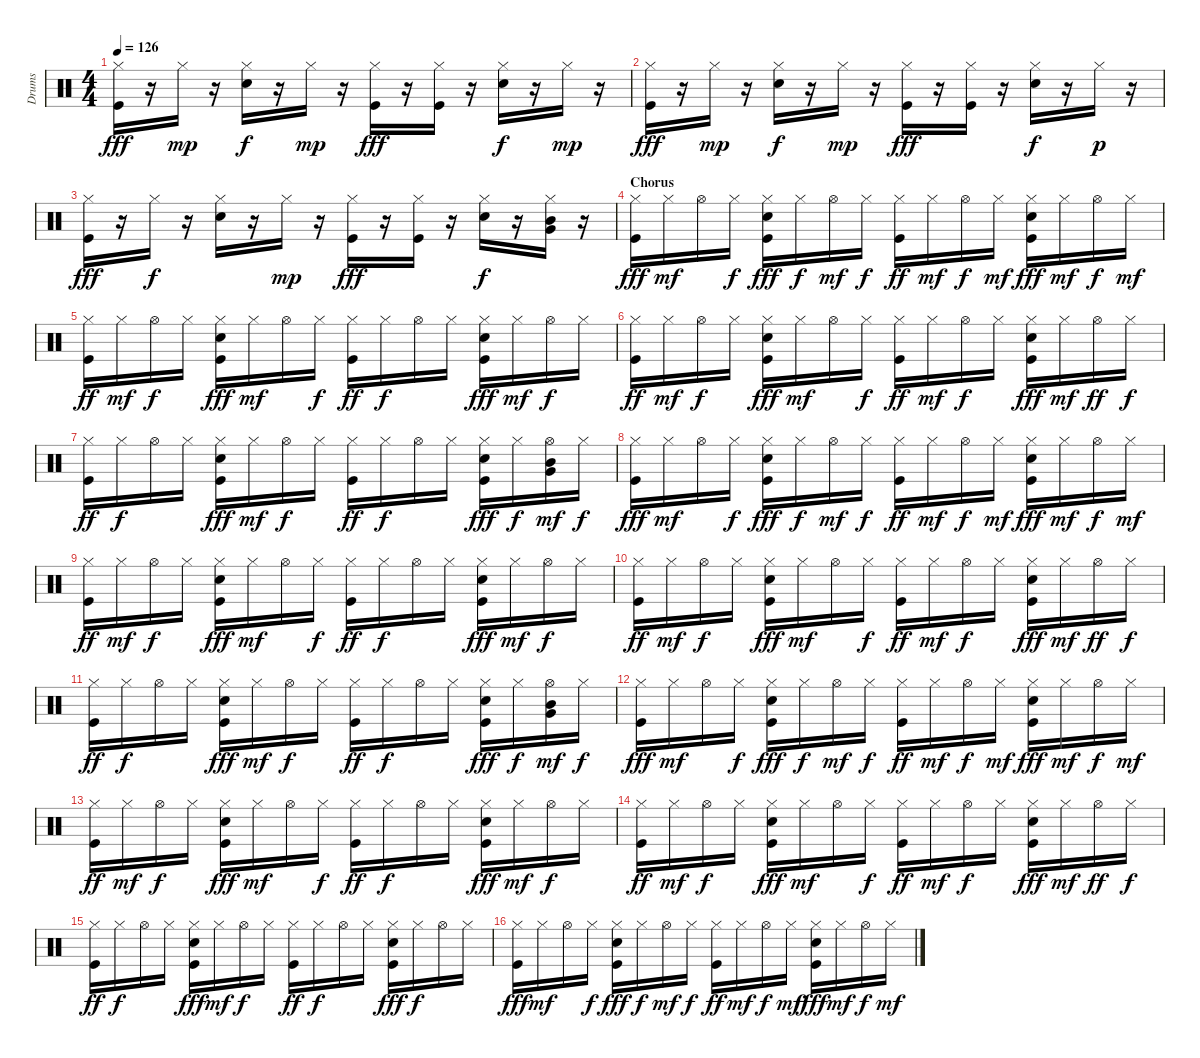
\track ("Drums" "Drums") {instrument percussion}
\staff {score}
\articulation defaults
\ts (4 4)
\tempo 126
\clef neutral
\ks c
("Kick (hit)" "Hi-Hat (closed)").16{dy fff} r.16 "Hi-Hat (closed)".16{dy mp} r.16 ("Electric Snare (hit)" "Hi-Hat (closed)").16{dy f} r.16 "Hi-Hat (closed)".16{dy mp} r.16 ("Kick (hit)" "Hi-Hat (closed)").16{dy fff} r.16 ("Kick (hit)" "Hi-Hat (closed)").16 r.16 ("Electric Snare (hit)" "Hi-Hat (closed)").16{dy f} r.16 "Hi-Hat (closed)".16{dy mp} r.16 |
("Kick (hit)" "Hi-Hat (closed)").16{dy fff} r.16 "Hi-Hat (closed)".16{dy mp} r.16 ("Electric Snare (hit)" "Hi-Hat (closed)").16{dy f} r.16 "Hi-Hat (closed)".16{dy mp} r.16 ("Kick (hit)" "Hi-Hat (closed)").16{dy fff} r.16 ("Kick (hit)" "Hi-Hat (closed)").16 r.16 ("Electric Snare (hit)" "Hi-Hat (closed)").16{dy f} r.16 "Hi-Hat (closed)".16{dy p} r.16 |
("Kick (hit)" "Hi-Hat (closed)").16{dy fff} r.16 "Hi-Hat (closed)".16{dy f} r.16 ("Electric Snare (hit)" "Hi-Hat (closed)").16 r.16 "Hi-Hat (closed)".16{dy mp} r.16 ("Kick (hit)" "Hi-Hat (closed)").16{dy fff} r.16 ("Kick (hit)" "Hi-Hat (closed)").16 r.16 ("Electric Snare (hit)" "Hi-Hat (closed)").16{dy f} r.16 ("Hi-Hat (closed)" "Very Low Tom (hit)" "Mid Tom (hit)").16 r.16 |
\section ("" "Chorus")
("Kick (hit)" "Hi-Hat (closed)").16{dy fff} "Hi-Hat (closed)".16{dy mf} "Hi-Hat (open)".16 "Hi-Hat (closed)".16{dy f} ("Kick (hit)" "Electric Snare (hit)" "Hi-Hat (closed)").16{dy fff} "Hi-Hat (closed)".16{dy f} "Hi-Hat (open)".16{dy mf} "Hi-Hat (closed)".16{dy f} ("Kick (hit)" "Hi-Hat (closed)").16{dy ff} "Hi-Hat (closed)".16{dy mf} "Hi-Hat (open)".16{dy f} "Hi-Hat (closed)".16{dy mf} ("Kick (hit)" "Electric Snare (hit)" "Hi-Hat (closed)").16{dy fff} "Hi-Hat (closed)".16{dy mf} "Hi-Hat (open)".16{dy f} "Hi-Hat (closed)".16{dy mf} |
("Kick (hit)" "Hi-Hat (closed)").16{dy ff} "Hi-Hat (closed)".16{dy mf} "Hi-Hat (open)".16{dy f} "Hi-Hat (closed)".16 ("Kick (hit)" "Electric Snare (hit)" "Hi-Hat (closed)").16{dy fff} "Hi-Hat (closed)".16{dy mf} "Hi-Hat (open)".16 "Hi-Hat (closed)".16{dy f} ("Kick (hit)" "Hi-Hat (closed)").16{dy ff} "Hi-Hat (closed)".16{dy f} "Hi-Hat (open)".16 "Hi-Hat (closed)".16 ("Kick (hit)" "Electric Snare (hit)" "Hi-Hat (closed)").16{dy fff} "Hi-Hat (closed)".16{dy mf} "Hi-Hat (open)".16{dy f} "Hi-Hat (closed)".16 |
("Kick (hit)" "Hi-Hat (closed)").16{dy ff} "Hi-Hat (closed)".16{dy mf} "Hi-Hat (open)".16{dy f} "Hi-Hat (closed)".16 ("Kick (hit)" "Electric Snare (hit)" "Hi-Hat (closed)").16{dy fff} "Hi-Hat (closed)".16{dy mf} "Hi-Hat (open)".16 "Hi-Hat (closed)".16{dy f} ("Kick (hit)" "Hi-Hat (closed)").16{dy ff} "Hi-Hat (closed)".16{dy mf} "Hi-Hat (open)".16{dy f} "Hi-Hat (closed)".16 ("Kick (hit)" "Electric Snare (hit)" "Hi-Hat (closed)").16{dy fff} "Hi-Hat (closed)".16{dy mf} "Hi-Hat (open)".16{dy ff} "Hi-Hat (closed)".16{dy f} |
("Kick (hit)" "Hi-Hat (closed)").16{dy ff} "Hi-Hat (closed)".16{dy f} "Hi-Hat (open)".16 "Hi-Hat (closed)".16 ("Kick (hit)" "Electric Snare (hit)" "Hi-Hat (closed)").16{dy fff} "Hi-Hat (closed)".16{dy mf} "Hi-Hat (open)".16{dy f} "Hi-Hat (closed)".16 ("Kick (hit)" "Hi-Hat (closed)").16{dy ff} "Hi-Hat (closed)".16{dy f} "Hi-Hat (open)".16 "Hi-Hat (closed)".16 ("Kick (hit)" "Electric Snare (hit)" "Hi-Hat (closed)").16{dy fff} "Hi-Hat (closed)".16{dy f} ("Very Low Tom (hit)" "Hi-Hat (open)" "Mid Tom (hit)").16{dy mf} "Hi-Hat (closed)".16{dy f} |
("Kick (hit)" "Hi-Hat (closed)").16{dy fff} "Hi-Hat (closed)".16{dy mf} "Hi-Hat (open)".16 "Hi-Hat (closed)".16{dy f} ("Kick (hit)" "Electric Snare (hit)" "Hi-Hat (closed)").16{dy fff} "Hi-Hat (closed)".16{dy f} "Hi-Hat (open)".16{dy mf} "Hi-Hat (closed)".16{dy f} ("Kick (hit)" "Hi-Hat (closed)").16{dy ff} "Hi-Hat (closed)".16{dy mf} "Hi-Hat (open)".16{dy f} "Hi-Hat (closed)".16{dy mf} ("Kick (hit)" "Electric Snare (hit)" "Hi-Hat (closed)").16{dy fff} "Hi-Hat (closed)".16{dy mf} "Hi-Hat (open)".16{dy f} "Hi-Hat (closed)".16{dy mf} |
("Kick (hit)" "Hi-Hat (closed)").16{dy ff} "Hi-Hat (closed)".16{dy mf} "Hi-Hat (open)".16{dy f} "Hi-Hat (closed)".16 ("Kick (hit)" "Electric Snare (hit)" "Hi-Hat (closed)").16{dy fff} "Hi-Hat (closed)".16{dy mf} "Hi-Hat (open)".16 "Hi-Hat (closed)".16{dy f} ("Kick (hit)" "Hi-Hat (closed)").16{dy ff} "Hi-Hat (closed)".16{dy f} "Hi-Hat (open)".16 "Hi-Hat (closed)".16 ("Kick (hit)" "Electric Snare (hit)" "Hi-Hat (closed)").16{dy fff} "Hi-Hat (closed)".16{dy mf} "Hi-Hat (open)".16{dy f} "Hi-Hat (closed)".16 |
("Kick (hit)" "Hi-Hat (closed)").16{dy ff} "Hi-Hat (closed)".16{dy mf} "Hi-Hat (open)".16{dy f} "Hi-Hat (closed)".16 ("Kick (hit)" "Electric Snare (hit)" "Hi-Hat (closed)").16{dy fff} "Hi-Hat (closed)".16{dy mf} "Hi-Hat (open)".16 "Hi-Hat (closed)".16{dy f} ("Kick (hit)" "Hi-Hat (closed)").16{dy ff} "Hi-Hat (closed)".16{dy mf} "Hi-Hat (open)".16{dy f} "Hi-Hat (closed)".16 ("Kick (hit)" "Electric Snare (hit)" "Hi-Hat (closed)").16{dy fff} "Hi-Hat (closed)".16{dy mf} "Hi-Hat (open)".16{dy ff} "Hi-Hat (closed)".16{dy f} |
("Kick (hit)" "Hi-Hat (closed)").16{dy ff} "Hi-Hat (closed)".16{dy f} "Hi-Hat (open)".16 "Hi-Hat (closed)".16 ("Kick (hit)" "Electric Snare (hit)" "Hi-Hat (closed)").16{dy fff} "Hi-Hat (closed)".16{dy mf} "Hi-Hat (open)".16{dy f} "Hi-Hat (closed)".16 ("Kick (hit)" "Hi-Hat (closed)").16{dy ff} "Hi-Hat (closed)".16{dy f} "Hi-Hat (open)".16 "Hi-Hat (closed)".16 ("Kick (hit)" "Electric Snare (hit)" "Hi-Hat (closed)").16{dy fff} "Hi-Hat (closed)".16{dy f} ("Very Low Tom (hit)" "Hi-Hat (open)" "Mid Tom (hit)").16{dy mf} "Hi-Hat (closed)".16{dy f} |
("Kick (hit)" "Hi-Hat (closed)").16{dy fff} "Hi-Hat (closed)".16{dy mf} "Hi-Hat (open)".16 "Hi-Hat (closed)".16{dy f} ("Kick (hit)" "Electric Snare (hit)" "Hi-Hat (closed)").16{dy fff} "Hi-Hat (closed)".16{dy f} "Hi-Hat (open)".16{dy mf} "Hi-Hat (closed)".16{dy f} ("Kick (hit)" "Hi-Hat (closed)").16{dy ff} "Hi-Hat (closed)".16{dy mf} "Hi-Hat (open)".16{dy f} "Hi-Hat (closed)".16{dy mf} ("Kick (hit)" "Electric Snare (hit)" "Hi-Hat (closed)").16{dy fff} "Hi-Hat (closed)".16{dy mf} "Hi-Hat (open)".16{dy f} "Hi-Hat (closed)".16{dy mf} |
("Kick (hit)" "Hi-Hat (closed)").16{dy ff} "Hi-Hat (closed)".16{dy mf} "Hi-Hat (open)".16{dy f} "Hi-Hat (closed)".16 ("Kick (hit)" "Electric Snare (hit)" "Hi-Hat (closed)").16{dy fff} "Hi-Hat (closed)".16{dy mf} "Hi-Hat (open)".16 "Hi-Hat (closed)".16{dy f} ("Kick (hit)" "Hi-Hat (closed)").16{dy ff} "Hi-Hat (closed)".16{dy f} "Hi-Hat (open)".16 "Hi-Hat (closed)".16 ("Kick (hit)" "Electric Snare (hit)" "Hi-Hat (closed)").16{dy fff} "Hi-Hat (closed)".16{dy mf} "Hi-Hat (open)".16{dy f} "Hi-Hat (closed)".16 |
("Kick (hit)" "Hi-Hat (closed)").16{dy ff} "Hi-Hat (closed)".16{dy mf} "Hi-Hat (open)".16{dy f} "Hi-Hat (closed)".16 ("Kick (hit)" "Electric Snare (hit)" "Hi-Hat (closed)").16{dy fff} "Hi-Hat (closed)".16{dy mf} "Hi-Hat (open)".16 "Hi-Hat (closed)".16{dy f} ("Kick (hit)" "Hi-Hat (closed)").16{dy ff} "Hi-Hat (closed)".16{dy mf} "Hi-Hat (open)".16{dy f} "Hi-Hat (closed)".16 ("Kick (hit)" "Electric Snare (hit)" "Hi-Hat (closed)").16{dy fff} "Hi-Hat (closed)".16{dy mf} "Hi-Hat (open)".16{dy ff} "Hi-Hat (closed)".16{dy f} |
("Kick (hit)" "Hi-Hat (closed)").16{dy ff} "Hi-Hat (closed)".16{dy f} "Hi-Hat (open)".16 "Hi-Hat (closed)".16 ("Kick (hit)" "Electric Snare (hit)" "Hi-Hat (closed)").16{dy fff} "Hi-Hat (closed)".16{dy mf} "Hi-Hat (open)".16{dy f} "Hi-Hat (closed)".16 ("Kick (hit)" "Hi-Hat (closed)").16{dy ff} "Hi-Hat (closed)".16{dy f} "Hi-Hat (open)".16 "Hi-Hat (closed)".16 ("Kick (hit)" "Electric Snare (hit)" "Hi-Hat (closed)").16{dy fff} "Hi-Hat (closed)".16{dy f} "Hi-Hat (open)".16 "Hi-Hat (closed)".16 |
("Kick (hit)" "Hi-Hat (closed)").16{dy fff} "Hi-Hat (closed)".16{dy mf} "Hi-Hat (open)".16 "Hi-Hat (closed)".16{dy f} ("Kick (hit)" "Electric Snare (hit)" "Hi-Hat (closed)").16{dy fff} "Hi-Hat (closed)".16{dy f} "Hi-Hat (open)".16{dy mf} "Hi-Hat (closed)".16{dy f} ("Kick (hit)" "Hi-Hat (closed)").16{dy ff} "Hi-Hat (closed)".16{dy mf} "Hi-Hat (open)".16{dy f} "Hi-Hat (closed)".16{dy mf} ("Kick (hit)" "Electric Snare (hit)" "Hi-Hat (closed)").16{dy fff} "Hi-Hat (closed)".16{dy mf} "Hi-Hat (open)".16{dy f} "Hi-Hat (closed)".16{dy mf}
